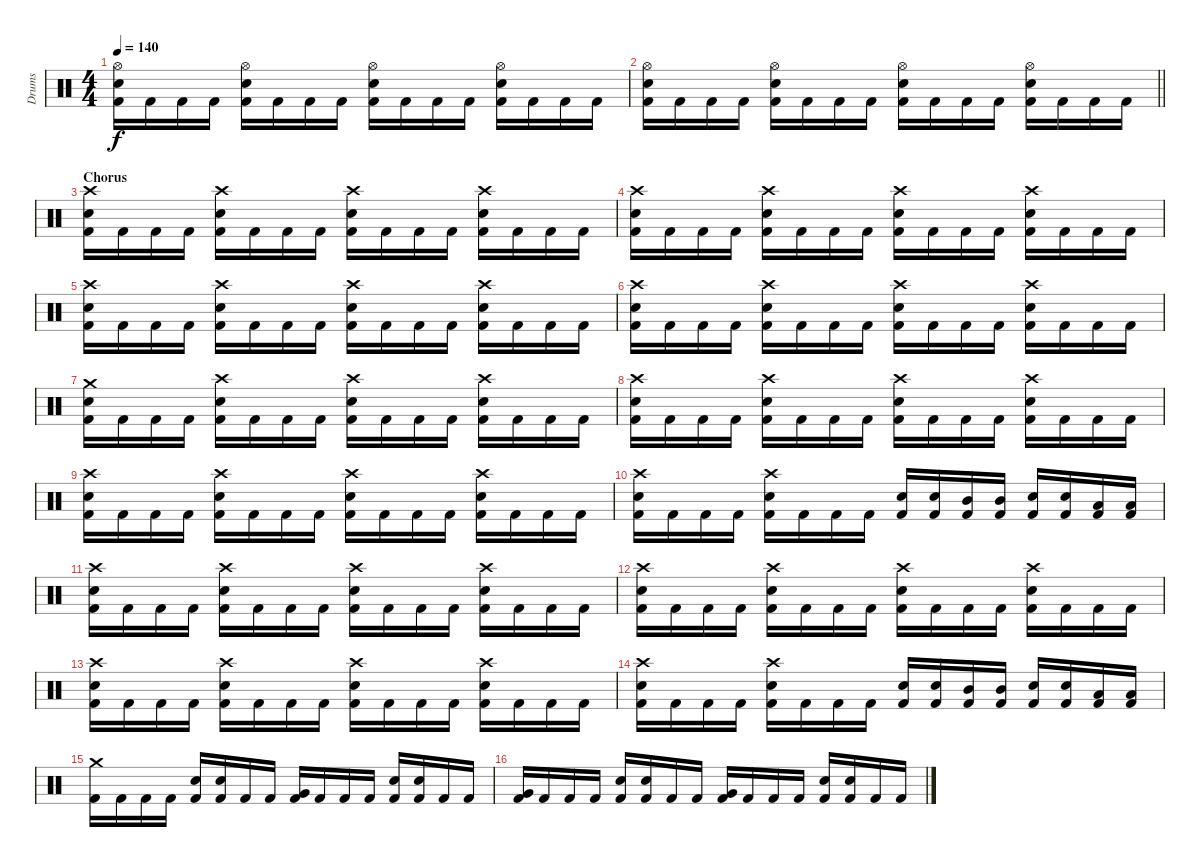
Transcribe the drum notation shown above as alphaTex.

\track ("Drums" "Drums") {instrument percussion}
\staff {score}
\articulation defaults
\ts (4 4)
\tempo 140
\clef neutral
\ks c
("Hi-Hat (open)" "Electric Snare (hit)" "Kick (hit) 2").16{dy f} "Kick (hit) 2".16 "Kick (hit) 2".16 "Kick (hit) 2".16 ("Hi-Hat (open)" "Electric Snare (hit)" "Kick (hit) 2").16 "Kick (hit) 2".16 "Kick (hit) 2".16 "Kick (hit) 2".16 ("Hi-Hat (open)" "Electric Snare (hit)" "Kick (hit) 2").16 "Kick (hit) 2".16 "Kick (hit) 2".16 "Kick (hit) 2".16 ("Hi-Hat (open)" "Electric Snare (hit)" "Kick (hit) 2").16 "Kick (hit) 2".16 "Kick (hit) 2".16 "Kick (hit) 2".16 |
\barLineRight lightlight
("Hi-Hat (open)" "Electric Snare (hit)" "Kick (hit) 2").16 "Kick (hit) 2".16 "Kick (hit) 2".16 "Kick (hit) 2".16 ("Hi-Hat (open)" "Electric Snare (hit)" "Kick (hit) 2").16 "Kick (hit) 2".16 "Kick (hit) 2".16 "Kick (hit) 2".16 ("Hi-Hat (open)" "Electric Snare (hit)" "Kick (hit) 2").16 "Kick (hit) 2".16 "Kick (hit) 2".16 "Kick (hit) 2".16 ("Hi-Hat (open)" "Electric Snare (hit)" "Kick (hit) 2").16 "Kick (hit) 2".16 "Kick (hit) 2".16 "Kick (hit) 2".16 |
\section ("" "Chorus")
("Crash high (hit)" "Electric Snare (hit)" "Kick (hit) 2").16 "Kick (hit) 2".16 "Kick (hit) 2".16 "Kick (hit) 2".16 ("Crash high (hit)" "Electric Snare (hit)" "Kick (hit) 2").16 "Kick (hit) 2".16 "Kick (hit) 2".16 "Kick (hit) 2".16 ("Crash high (hit)" "Electric Snare (hit)" "Kick (hit) 2").16 "Kick (hit) 2".16 "Kick (hit) 2".16 "Kick (hit) 2".16 ("Crash high (hit)" "Electric Snare (hit)" "Kick (hit) 2").16 "Kick (hit) 2".16 "Kick (hit) 2".16 "Kick (hit) 2".16 |
("Crash high (hit)" "Electric Snare (hit)" "Kick (hit) 2").16 "Kick (hit) 2".16 "Kick (hit) 2".16 "Kick (hit) 2".16 ("Crash high (hit)" "Electric Snare (hit)" "Kick (hit) 2").16 "Kick (hit) 2".16 "Kick (hit) 2".16 "Kick (hit) 2".16 ("Crash high (hit)" "Electric Snare (hit)" "Kick (hit) 2").16 "Kick (hit) 2".16 "Kick (hit) 2".16 "Kick (hit) 2".16 ("Crash high (hit)" "Electric Snare (hit)" "Kick (hit) 2").16 "Kick (hit) 2".16 "Kick (hit) 2".16 "Kick (hit) 2".16 |
("Crash high (hit)" "Electric Snare (hit)" "Kick (hit) 2").16 "Kick (hit) 2".16 "Kick (hit) 2".16 "Kick (hit) 2".16 ("Crash high (hit)" "Electric Snare (hit)" "Kick (hit) 2").16 "Kick (hit) 2".16 "Kick (hit) 2".16 "Kick (hit) 2".16 ("Crash high (hit)" "Electric Snare (hit)" "Kick (hit) 2").16 "Kick (hit) 2".16 "Kick (hit) 2".16 "Kick (hit) 2".16 ("Crash high (hit)" "Electric Snare (hit)" "Kick (hit) 2").16 "Kick (hit) 2".16 "Kick (hit) 2".16 "Kick (hit) 2".16 |
("Crash high (hit)" "Electric Snare (hit)" "Kick (hit) 2").16 "Kick (hit) 2".16 "Kick (hit) 2".16 "Kick (hit) 2".16 ("Crash high (hit)" "Electric Snare (hit)" "Kick (hit) 2").16 "Kick (hit) 2".16 "Kick (hit) 2".16 "Kick (hit) 2".16 ("Crash high (hit)" "Electric Snare (hit)" "Kick (hit) 2").16 "Kick (hit) 2".16 "Kick (hit) 2".16 "Kick (hit) 2".16 ("Crash high (hit)" "Electric Snare (hit)" "Kick (hit) 2").16 "Kick (hit) 2".16 "Kick (hit) 2".16 "Kick (hit) 2".16 |
("Crash medium (hit)" "Electric Snare (hit)" "Kick (hit) 2").16 "Kick (hit) 2".16 "Kick (hit) 2".16 "Kick (hit) 2".16 ("Crash high (hit)" "Electric Snare (hit)" "Kick (hit) 2").16 "Kick (hit) 2".16 "Kick (hit) 2".16 "Kick (hit) 2".16 ("Crash high (hit)" "Electric Snare (hit)" "Kick (hit) 2").16 "Kick (hit) 2".16 "Kick (hit) 2".16 "Kick (hit) 2".16 ("Crash high (hit)" "Electric Snare (hit)" "Kick (hit) 2").16 "Kick (hit) 2".16 "Kick (hit) 2".16 "Kick (hit) 2".16 |
("Crash high (hit)" "Electric Snare (hit)" "Kick (hit) 2").16 "Kick (hit) 2".16 "Kick (hit) 2".16 "Kick (hit) 2".16 ("Crash high (hit)" "Electric Snare (hit)" "Kick (hit) 2").16 "Kick (hit) 2".16 "Kick (hit) 2".16 "Kick (hit) 2".16 ("Crash high (hit)" "Electric Snare (hit)" "Kick (hit) 2").16 "Kick (hit) 2".16 "Kick (hit) 2".16 "Kick (hit) 2".16 ("Crash high (hit)" "Electric Snare (hit)" "Kick (hit) 2").16 "Kick (hit) 2".16 "Kick (hit) 2".16 "Kick (hit) 2".16 |
("Crash high (hit)" "Electric Snare (hit)" "Kick (hit) 2").16 "Kick (hit) 2".16 "Kick (hit) 2".16 "Kick (hit) 2".16 ("Crash high (hit)" "Electric Snare (hit)" "Kick (hit) 2").16 "Kick (hit) 2".16 "Kick (hit) 2".16 "Kick (hit) 2".16 ("Crash high (hit)" "Electric Snare (hit)" "Kick (hit) 2").16 "Kick (hit) 2".16 "Kick (hit) 2".16 "Kick (hit) 2".16 ("Crash high (hit)" "Electric Snare (hit)" "Kick (hit) 2").16 "Kick (hit) 2".16 "Kick (hit) 2".16 "Kick (hit) 2".16 |
("Crash high (hit)" "Electric Snare (hit)" "Kick (hit) 2").16 "Kick (hit) 2".16 "Kick (hit) 2".16 "Kick (hit) 2".16 ("Crash high (hit)" "Electric Snare (hit)" "Kick (hit) 2").16 "Kick (hit) 2".16 "Kick (hit) 2".16 "Kick (hit) 2".16 ("Electric Snare (hit)" "Kick (hit) 2").16 ("Electric Snare (hit)" "Kick (hit) 2").16 ("Mid Tom (hit)" "Kick (hit) 2").16 ("Mid Tom (hit)" "Kick (hit) 2").16 ("Electric Snare (hit)" "Kick (hit) 2").16 ("Electric Snare (hit)" "Kick (hit) 2").16 ("Low Tom (hit)" "Kick (hit) 2").16 ("Low Tom (hit)" "Kick (hit) 2").16 |
("Crash high (hit)" "Electric Snare (hit)" "Kick (hit) 2").16 "Kick (hit) 2".16 "Kick (hit) 2".16 "Kick (hit) 2".16 ("Crash high (hit)" "Electric Snare (hit)" "Kick (hit) 2").16 "Kick (hit) 2".16 "Kick (hit) 2".16 "Kick (hit) 2".16 ("Crash high (hit)" "Electric Snare (hit)" "Kick (hit) 2").16 "Kick (hit) 2".16 "Kick (hit) 2".16 "Kick (hit) 2".16 ("Crash high (hit)" "Electric Snare (hit)" "Kick (hit) 2").16 "Kick (hit) 2".16 "Kick (hit) 2".16 "Kick (hit) 2".16 |
("Crash high (hit)" "Electric Snare (hit)" "Kick (hit) 2").16 "Kick (hit) 2".16 "Kick (hit) 2".16 "Kick (hit) 2".16 ("Crash high (hit)" "Electric Snare (hit)" "Kick (hit) 2").16 "Kick (hit) 2".16 "Kick (hit) 2".16 "Kick (hit) 2".16 ("Crash high (hit)" "Electric Snare (hit)" "Kick (hit) 2").16 "Kick (hit) 2".16 "Kick (hit) 2".16 "Kick (hit) 2".16 ("Crash high (hit)" "Electric Snare (hit)" "Kick (hit) 2").16 "Kick (hit) 2".16 "Kick (hit) 2".16 "Kick (hit) 2".16 |
("Crash high (hit)" "Electric Snare (hit)" "Kick (hit) 2").16 "Kick (hit) 2".16 "Kick (hit) 2".16 "Kick (hit) 2".16 ("Crash high (hit)" "Electric Snare (hit)" "Kick (hit) 2").16 "Kick (hit) 2".16 "Kick (hit) 2".16 "Kick (hit) 2".16 ("Crash high (hit)" "Electric Snare (hit)" "Kick (hit) 2").16 "Kick (hit) 2".16 "Kick (hit) 2".16 "Kick (hit) 2".16 ("Crash high (hit)" "Electric Snare (hit)" "Kick (hit) 2").16 "Kick (hit) 2".16 "Kick (hit) 2".16 "Kick (hit) 2".16 |
("Crash high (hit)" "Electric Snare (hit)" "Kick (hit) 2").16 "Kick (hit) 2".16 "Kick (hit) 2".16 "Kick (hit) 2".16 ("Crash high (hit)" "Electric Snare (hit)" "Kick (hit) 2").16 "Kick (hit) 2".16 "Kick (hit) 2".16 "Kick (hit) 2".16 ("Electric Snare (hit)" "Kick (hit) 2").16 ("Electric Snare (hit)" "Kick (hit) 2").16 ("Mid Tom (hit)" "Kick (hit) 2").16 ("Mid Tom (hit)" "Kick (hit) 2").16 ("Electric Snare (hit)" "Kick (hit) 2").16 ("Electric Snare (hit)" "Kick (hit) 2").16 ("Low Tom (hit)" "Kick (hit) 2").16 ("Low Tom (hit)" "Kick (hit) 2").16 |
("Crash medium (hit)" "Kick (hit) 2").16 "Kick (hit) 2".16 "Kick (hit) 2".16 "Kick (hit) 2".16 ("Electric Snare (hit)" "Kick (hit) 2").16 ("Electric Snare (hit)" "Kick (hit) 2").16 "Kick (hit) 2".16 "Kick (hit) 2".16 ("Very Low Tom (hit)" "Kick (hit) 2").16 "Kick (hit) 2".16 "Kick (hit) 2".16 "Kick (hit) 2".16 ("Electric Snare (hit)" "Kick (hit) 2").16 ("Electric Snare (hit)" "Kick (hit) 2").16 "Kick (hit) 2".16 "Kick (hit) 2".16 |
("Very Low Tom (hit)" "Kick (hit) 2").16 "Kick (hit) 2".16 "Kick (hit) 2".16 "Kick (hit) 2".16 ("Electric Snare (hit)" "Kick (hit) 2").16 ("Electric Snare (hit)" "Kick (hit) 2").16 "Kick (hit) 2".16 "Kick (hit) 2".16 ("Very Low Tom (hit)" "Kick (hit) 2").16 "Kick (hit) 2".16 "Kick (hit) 2".16 "Kick (hit) 2".16 ("Electric Snare (hit)" "Kick (hit) 2").16 ("Electric Snare (hit)" "Kick (hit) 2").16 "Kick (hit) 2".16 "Kick (hit) 2".16
